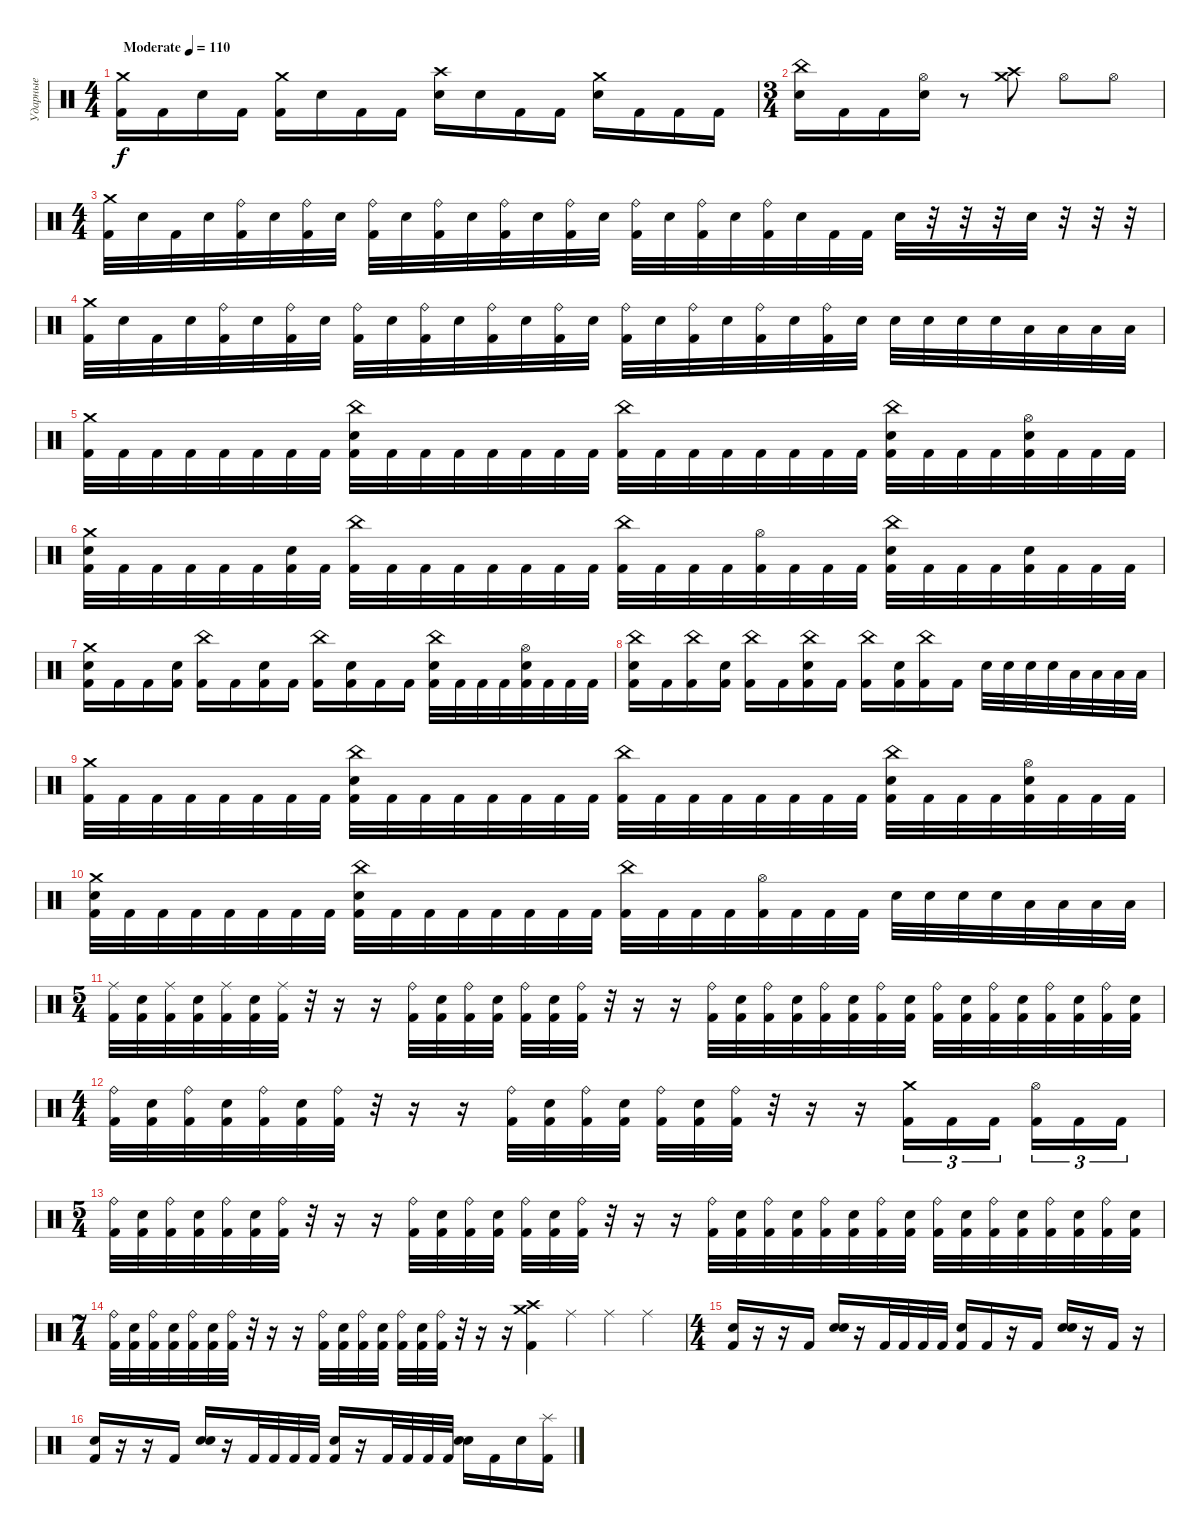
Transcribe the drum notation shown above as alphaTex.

\track ("Ударные" "Ударные") {instrument percussion}
\staff {score}
\articulation defaults
\ts (4 4)
\tempo (110 "Moderate")
\clef neutral
\ks c
("Crash medium (hit)" "Kick (hit) 2").16{dy f} "Kick (hit) 2".16 "Electric Snare (hit)".16 "Kick (hit) 2".16 ("Crash medium (hit)" "Kick (hit) 2").16 "Electric Snare (hit)".16 "Kick (hit) 2".16 "Kick (hit) 2".16 ("Crash high (hit)" "Electric Snare (hit)").16 "Electric Snare (hit)".16 "Kick (hit) 2".16 "Kick (hit) 2".16 ("Crash medium (hit)" "Electric Snare (hit)").16 "Kick (hit) 2".16 "Kick (hit) 2".16 "Kick (hit) 2".16 |
\ts (3 4)
("China (hit)" "Electric Snare (hit)").16 "Kick (hit) 2".16 "Kick (hit) 2".16 ("Hi-Hat (open)" "Electric Snare (hit)").16 r.8 ("Crash high (hit)" "Crash medium (hit)").8 "Hi-Hat (open)".8 "Hi-Hat (open)".8 |
\ts (4 4)
("Crash medium (hit)" "Kick (hit) 2").32 "Electric Snare (hit)".32 "Kick (hit) 2".32 "Electric Snare (hit)".32 ("Ride (bell)" "Kick (hit) 2").32 "Electric Snare (hit)".32 ("Ride (bell)" "Kick (hit) 2").32 "Electric Snare (hit)".32 ("Ride (bell)" "Kick (hit) 2").32 "Electric Snare (hit)".32 ("Ride (bell)" "Kick (hit) 2").32 "Electric Snare (hit)".32 ("Ride (bell)" "Kick (hit) 2").32 "Electric Snare (hit)".32 ("Ride (bell)" "Kick (hit) 2").32 "Electric Snare (hit)".32 ("Ride (bell)" "Kick (hit) 2").32 "Electric Snare (hit)".32 ("Ride (bell)" "Kick (hit) 2").32 "Electric Snare (hit)".32 ("Ride (bell)" "Kick (hit) 2").32 "Electric Snare (hit)".32 "Kick (hit) 2".32 "Kick (hit) 2".32 "Electric Snare (hit)".32 r.32 r.32 r.32 "Electric Snare (hit)".32 r.32 r.32 r.32 |
("Crash medium (hit)" "Kick (hit) 2").32 "Electric Snare (hit)".32 "Kick (hit) 2".32 "Electric Snare (hit)".32 ("Ride (bell)" "Kick (hit) 2").32 "Electric Snare (hit)".32 ("Ride (bell)" "Kick (hit) 2").32 "Electric Snare (hit)".32 ("Ride (bell)" "Kick (hit) 2").32 "Electric Snare (hit)".32 ("Ride (bell)" "Kick (hit) 2").32 "Electric Snare (hit)".32 ("Ride (bell)" "Kick (hit) 2").32 "Electric Snare (hit)".32 ("Ride (bell)" "Kick (hit) 2").32 "Electric Snare (hit)".32 ("Ride (bell)" "Kick (hit) 2").32 "Electric Snare (hit)".32 ("Ride (bell)" "Kick (hit) 2").32 "Electric Snare (hit)".32 ("Ride (bell)" "Kick (hit) 2").32 "Electric Snare (hit)".32 ("Ride (bell)" "Kick (hit) 2").32 "Electric Snare (hit)".32 "Electric Snare (hit)".32 "Electric Snare (hit)".32 "Electric Snare (hit)".32 "Electric Snare (hit)".32 "Low Tom (hit)".32 "Low Tom (hit)".32 "Low Tom (hit)".32 "Low Tom (hit)".32 |
("Crash medium (hit)" "Kick (hit) 2").32 "Kick (hit) 2".32 "Kick (hit) 2".32 "Kick (hit) 2".32 "Kick (hit) 2".32 "Kick (hit) 2".32 "Kick (hit) 2".32 "Kick (hit) 2".32 ("China (hit)" "Electric Snare (hit)" "Kick (hit) 2").32 "Kick (hit) 2".32 "Kick (hit) 2".32 "Kick (hit) 2".32 "Kick (hit) 2".32 "Kick (hit) 2".32 "Kick (hit) 2".32 "Kick (hit) 2".32 ("China (hit)" "Kick (hit) 2").32 "Kick (hit) 2".32 "Kick (hit) 2".32 "Kick (hit) 2".32 "Kick (hit) 2".32 "Kick (hit) 2".32 "Kick (hit) 2".32 "Kick (hit) 2".32 ("China (hit)" "Electric Snare (hit)" "Kick (hit) 2").32 "Kick (hit) 2".32 "Kick (hit) 2".32 "Kick (hit) 2".32 ("Hi-Hat (open)" "Electric Snare (hit)" "Kick (hit) 2").32 "Kick (hit) 2".32 "Kick (hit) 2".32 "Kick (hit) 2".32 |
("Crash medium (hit)" "Electric Snare (hit)" "Kick (hit) 2").32 "Kick (hit) 2".32 "Kick (hit) 2".32 "Kick (hit) 2".32 "Kick (hit) 2".32 "Kick (hit) 2".32 ("Electric Snare (hit)" "Kick (hit) 2").32 "Kick (hit) 2".32 ("China (hit)" "Kick (hit) 2").32 "Kick (hit) 2".32 "Kick (hit) 2".32 "Kick (hit) 2".32 "Kick (hit) 2".32 "Kick (hit) 2".32 "Kick (hit) 2".32 "Kick (hit) 2".32 ("China (hit)" "Kick (hit) 2").32 "Kick (hit) 2".32 "Kick (hit) 2".32 "Kick (hit) 2".32 ("Hi-Hat (open)" "Kick (hit) 2").32 "Kick (hit) 2".32 "Kick (hit) 2".32 "Kick (hit) 2".32 ("China (hit)" "Electric Snare (hit)" "Kick (hit) 2").32 "Kick (hit) 2".32 "Kick (hit) 2".32 "Kick (hit) 2".32 ("Electric Snare (hit)" "Kick (hit) 2").32 "Kick (hit) 2".32 "Kick (hit) 2".32 "Kick (hit) 2".32 |
("Crash medium (hit)" "Electric Snare (hit)" "Kick (hit) 2").16 "Kick (hit) 2".16 "Kick (hit) 2".16 ("Electric Snare (hit)" "Kick (hit) 2").16 ("China (hit)" "Kick (hit) 2").16 "Kick (hit) 2".16 ("Electric Snare (hit)" "Kick (hit) 2").16 "Kick (hit) 2".16 ("China (hit)" "Kick (hit) 2").16 ("Electric Snare (hit)" "Kick (hit) 2").16 "Kick (hit) 2".16 "Kick (hit) 2".16 ("China (hit)" "Electric Snare (hit)" "Kick (hit) 2").32 "Kick (hit) 2".32 "Kick (hit) 2".32 "Kick (hit) 2".32 ("Hi-Hat (open)" "Electric Snare (hit)" "Kick (hit) 2").32 "Kick (hit) 2".32 "Kick (hit) 2".32 "Kick (hit) 2".32 |
("China (hit)" "Electric Snare (hit)" "Kick (hit) 2").16 "Kick (hit) 2".16 ("China (hit)" "Kick (hit) 2").16 ("Electric Snare (hit)" "Kick (hit) 2").16 ("China (hit)" "Kick (hit) 2").16 "Kick (hit) 2".16 ("China (hit)" "Electric Snare (hit)" "Kick (hit) 2").16 "Kick (hit) 2".16 ("China (hit)" "Kick (hit) 2").16 ("Electric Snare (hit)" "Kick (hit) 2").16 ("China (hit)" "Kick (hit) 2").16 "Kick (hit) 2".16 "Electric Snare (hit)".32 "Electric Snare (hit)".32 "Electric Snare (hit)".32 "Electric Snare (hit)".32 "Low Tom (hit)".32 "Low Tom (hit)".32 "Low Tom (hit)".32 "Low Tom (hit)".32 |
("Crash medium (hit)" "Kick (hit) 2").32 "Kick (hit) 2".32 "Kick (hit) 2".32 "Kick (hit) 2".32 "Kick (hit) 2".32 "Kick (hit) 2".32 "Kick (hit) 2".32 "Kick (hit) 2".32 ("China (hit)" "Electric Snare (hit)" "Kick (hit) 2").32 "Kick (hit) 2".32 "Kick (hit) 2".32 "Kick (hit) 2".32 "Kick (hit) 2".32 "Kick (hit) 2".32 "Kick (hit) 2".32 "Kick (hit) 2".32 ("China (hit)" "Kick (hit) 2").32 "Kick (hit) 2".32 "Kick (hit) 2".32 "Kick (hit) 2".32 "Kick (hit) 2".32 "Kick (hit) 2".32 "Kick (hit) 2".32 "Kick (hit) 2".32 ("China (hit)" "Electric Snare (hit)" "Kick (hit) 2").32 "Kick (hit) 2".32 "Kick (hit) 2".32 "Kick (hit) 2".32 ("Hi-Hat (open)" "Electric Snare (hit)" "Kick (hit) 2").32 "Kick (hit) 2".32 "Kick (hit) 2".32 "Kick (hit) 2".32 |
("Crash medium (hit)" "Electric Snare (hit)" "Kick (hit) 2").32 "Kick (hit) 2".32 "Kick (hit) 2".32 "Kick (hit) 2".32 "Kick (hit) 2".32 "Kick (hit) 2".32 "Kick (hit) 2".32 "Kick (hit) 2".32 ("China (hit)" "Electric Snare (hit)" "Kick (hit) 2").32 "Kick (hit) 2".32 "Kick (hit) 2".32 "Kick (hit) 2".32 "Kick (hit) 2".32 "Kick (hit) 2".32 "Kick (hit) 2".32 "Kick (hit) 2".32 ("China (hit)" "Kick (hit) 2").32 "Kick (hit) 2".32 "Kick (hit) 2".32 "Kick (hit) 2".32 ("Hi-Hat (open)" "Kick (hit) 2").32 "Kick (hit) 2".32 "Kick (hit) 2".32 "Kick (hit) 2".32 "Electric Snare (hit)".32 "Electric Snare (hit)".32 "Electric Snare (hit)".32 "Electric Snare (hit)".32 "Low Tom (hit)".32 "Low Tom (hit)".32 "Low Tom (hit)".32 "Low Tom (hit)".32 |
\ts (5 4)
("Ride (middle)" "Kick (hit) 2").32 ("Electric Snare (hit)" "Kick (hit) 2").32 ("Ride (middle)" "Kick (hit) 2").32 ("Electric Snare (hit)" "Kick (hit) 2").32 ("Ride (middle)" "Kick (hit) 2").32 ("Electric Snare (hit)" "Kick (hit) 2").32 ("Ride (middle)" "Kick (hit) 2").32 r.32 r.16 r.16 ("Ride (bell)" "Kick (hit) 2").32 ("Electric Snare (hit)" "Kick (hit) 2").32 ("Ride (bell)" "Kick (hit) 2").32 ("Electric Snare (hit)" "Kick (hit) 2").32 ("Ride (bell)" "Kick (hit) 2").32 ("Electric Snare (hit)" "Kick (hit) 2").32 ("Ride (bell)" "Kick (hit) 2").32 r.32 r.16 r.16 ("Ride (bell)" "Kick (hit) 2").32 ("Electric Snare (hit)" "Kick (hit) 2").32 ("Ride (bell)" "Kick (hit) 2").32 ("Electric Snare (hit)" "Kick (hit) 2").32 ("Ride (bell)" "Kick (hit) 2").32 ("Electric Snare (hit)" "Kick (hit) 2").32 ("Ride (bell)" "Kick (hit) 2").32 ("Electric Snare (hit)" "Kick (hit) 2").32 ("Ride (bell)" "Kick (hit) 2").32 ("Electric Snare (hit)" "Kick (hit) 2").32 ("Ride (bell)" "Kick (hit) 2").32 ("Electric Snare (hit)" "Kick (hit) 2").32 ("Ride (bell)" "Kick (hit) 2").32 ("Electric Snare (hit)" "Kick (hit) 2").32 ("Ride (bell)" "Kick (hit) 2").32 ("Electric Snare (hit)" "Kick (hit) 2").32 |
\ts (4 4)
("Ride (bell)" "Kick (hit) 2").32 ("Electric Snare (hit)" "Kick (hit) 2").32 ("Ride (bell)" "Kick (hit) 2").32 ("Electric Snare (hit)" "Kick (hit) 2").32 ("Ride (bell)" "Kick (hit) 2").32 ("Electric Snare (hit)" "Kick (hit) 2").32 ("Ride (bell)" "Kick (hit) 2").32 r.32 r.16 r.16 ("Ride (bell)" "Kick (hit) 2").32 ("Electric Snare (hit)" "Kick (hit) 2").32 ("Ride (bell)" "Kick (hit) 2").32 ("Electric Snare (hit)" "Kick (hit) 2").32 ("Ride (bell)" "Kick (hit) 2").32 ("Electric Snare (hit)" "Kick (hit) 2").32 ("Ride (bell)" "Kick (hit) 2").32 r.32 r.16 r.16 ("Crash medium (hit)" "Kick (hit) 2").16{tu (3 2)} "Kick (hit) 2".16{tu (3 2)} "Kick (hit) 2".16{tu (3 2) beam splitsecondary} ("Hi-Hat (open)" "Kick (hit) 2").16{tu (3 2)} "Kick (hit) 2".16{tu (3 2)} "Kick (hit) 2".16{tu (3 2)} |
\ts (5 4)
("Ride (bell)" "Kick (hit) 2").32 ("Electric Snare (hit)" "Kick (hit) 2").32 ("Ride (bell)" "Kick (hit) 2").32 ("Electric Snare (hit)" "Kick (hit) 2").32 ("Ride (bell)" "Kick (hit) 2").32 ("Electric Snare (hit)" "Kick (hit) 2").32 ("Ride (bell)" "Kick (hit) 2").32 r.32 r.16 r.16 ("Ride (bell)" "Kick (hit) 2").32 ("Electric Snare (hit)" "Kick (hit) 2").32 ("Ride (bell)" "Kick (hit) 2").32 ("Electric Snare (hit)" "Kick (hit) 2").32 ("Ride (bell)" "Kick (hit) 2").32 ("Electric Snare (hit)" "Kick (hit) 2").32 ("Ride (bell)" "Kick (hit) 2").32 r.32 r.16 r.16 ("Ride (bell)" "Kick (hit) 2").32 ("Electric Snare (hit)" "Kick (hit) 2").32 ("Ride (bell)" "Kick (hit) 2").32 ("Electric Snare (hit)" "Kick (hit) 2").32 ("Ride (bell)" "Kick (hit) 2").32 ("Electric Snare (hit)" "Kick (hit) 2").32 ("Ride (bell)" "Kick (hit) 2").32 ("Electric Snare (hit)" "Kick (hit) 2").32 ("Ride (bell)" "Kick (hit) 2").32 ("Electric Snare (hit)" "Kick (hit) 2").32 ("Ride (bell)" "Kick (hit) 2").32 ("Electric Snare (hit)" "Kick (hit) 2").32 ("Ride (bell)" "Kick (hit) 2").32 ("Electric Snare (hit)" "Kick (hit) 2").32 ("Ride (bell)" "Kick (hit) 2").32 ("Electric Snare (hit)" "Kick (hit) 2").32 |
\ts (7 4)
("Ride (bell)" "Kick (hit) 2").32 ("Electric Snare (hit)" "Kick (hit) 2").32 ("Ride (bell)" "Kick (hit) 2").32 ("Electric Snare (hit)" "Kick (hit) 2").32 ("Ride (bell)" "Kick (hit) 2").32 ("Electric Snare (hit)" "Kick (hit) 2").32 ("Ride (bell)" "Kick (hit) 2").32 r.32 r.16 r.16 ("Ride (bell)" "Kick (hit) 2").32 ("Electric Snare (hit)" "Kick (hit) 2").32 ("Ride (bell)" "Kick (hit) 2").32 ("Electric Snare (hit)" "Kick (hit) 2").32 ("Ride (bell)" "Kick (hit) 2").32 ("Electric Snare (hit)" "Kick (hit) 2").32 ("Ride (bell)" "Kick (hit) 2").32 r.32 r.16 r.16 ("Crash high (hit)" "Crash medium (hit)" "Kick (hit) 2").4 "Ride (middle)".4 "Ride (middle)".4 "Ride (middle)".4 |
\ts (4 4)
("Metronome (bell)" "Kick (hit) 2").16 r.16 r.16 "Kick (hit) 2".16 ("Metronome (bell)" "Electric Snare (hit)").16 r.16 "Kick (hit) 2".32 "Kick (hit) 2".32 "Kick (hit) 2".32 "Kick (hit) 2".32 ("Metronome (bell)" "Kick (hit) 2").16 "Kick (hit) 2".16 r.16 "Kick (hit) 2".16 ("Metronome (bell)" "Electric Snare (hit)").16 r.16 "Kick (hit) 2".16 r.16 |
("Metronome (bell)" "Kick (hit) 2").16 r.16 r.16 "Kick (hit) 2".16 ("Metronome (bell)" "Electric Snare (hit)").16 r.16 "Kick (hit) 2".32 "Kick (hit) 2".32 "Kick (hit) 2".32 "Kick (hit) 2".32 ("Metronome (bell)" "Kick (hit) 2").16 r.16 "Kick (hit) 2".32 "Kick (hit) 2".32 "Kick (hit) 2".32 "Kick (hit) 2".32 ("Metronome (bell)" "Electric Snare (hit)").16 "Kick (hit) 2".16 "Electric Snare (hit)".16 ("Splash (hit)" "Kick (hit) 2").16
